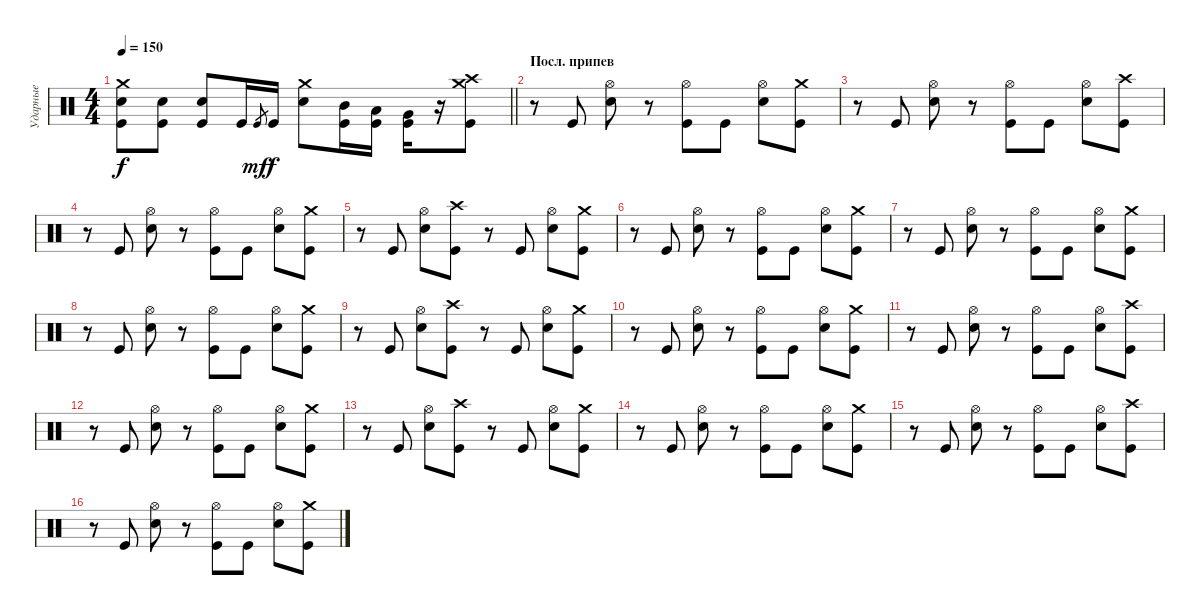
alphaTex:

\track ("Ударные" "Ударные") {instrument percussion}
\staff {score}
\articulation defaults
\ts (4 4)
\tempo 150
\clef neutral
\barLineRight lightlight
\ks c
("Crash medium (hit)" "Electric Snare (hit)" "Kick (hit)").8{dy f} ("Electric Snare (hit)" "Kick (hit)").8 ("Electric Snare (hit)" "Kick (hit)").8 "Kick (hit)".16 "Kick (hit)".8{gr dy mf} "Kick (hit)".16{dy f} ("Crash medium (hit)" "Electric Snare (hit)").8 ("Mid Tom (hit)" "Kick (hit)").16 ("Low Tom (hit)" "Kick (hit)").16 ("Very Low Tom (hit)" "Kick (hit)").16 r.16 ("Crash high (hit)" "Crash medium (hit)" "Kick (hit)").8 |
\section ("" "Посл. припев")
r.8 "Kick (hit)".8 ("Hi-Hat (open)" "Electric Snare (hit)").8 r.8 ("Hi-Hat (open)" "Kick (hit)").8 "Kick (hit)".8 ("Hi-Hat (open)" "Electric Snare (hit)").8 ("Crash medium (hit)" "Kick (hit)").8 |
r.8 "Kick (hit)".8 ("Hi-Hat (open)" "Electric Snare (hit)").8 r.8 ("Hi-Hat (open)" "Kick (hit)").8 "Kick (hit)".8 ("Hi-Hat (open)" "Electric Snare (hit)").8 ("Crash high (hit)" "Kick (hit)").8 |
r.8 "Kick (hit)".8 ("Hi-Hat (open)" "Electric Snare (hit)").8 r.8 ("Hi-Hat (open)" "Kick (hit)").8 "Kick (hit)".8 ("Hi-Hat (open)" "Electric Snare (hit)").8 ("Crash medium (hit)" "Kick (hit)").8 |
r.8 "Kick (hit)".8 ("Hi-Hat (open)" "Electric Snare (hit)").8 ("Crash high (hit)" "Kick (hit)").8 r.8 "Kick (hit)".8 ("Hi-Hat (open)" "Electric Snare (hit)").8 ("Crash medium (hit)" "Kick (hit)").8 |
r.8 "Kick (hit)".8 ("Hi-Hat (open)" "Electric Snare (hit)").8 r.8 ("Hi-Hat (open)" "Kick (hit)").8 "Kick (hit)".8 ("Hi-Hat (open)" "Electric Snare (hit)").8 ("Crash medium (hit)" "Kick (hit)").8 |
r.8 "Kick (hit)".8 ("Hi-Hat (open)" "Electric Snare (hit)").8 r.8 ("Hi-Hat (open)" "Kick (hit)").8 "Kick (hit)".8 ("Hi-Hat (open)" "Electric Snare (hit)").8 ("Crash medium (hit)" "Kick (hit)").8 |
r.8 "Kick (hit)".8 ("Hi-Hat (open)" "Electric Snare (hit)").8 r.8 ("Hi-Hat (open)" "Kick (hit)").8 "Kick (hit)".8 ("Hi-Hat (open)" "Electric Snare (hit)").8 ("Crash medium (hit)" "Kick (hit)").8 |
r.8 "Kick (hit)".8 ("Hi-Hat (open)" "Electric Snare (hit)").8 ("Crash high (hit)" "Kick (hit)").8 r.8 "Kick (hit)".8 ("Hi-Hat (open)" "Electric Snare (hit)").8 ("Crash medium (hit)" "Kick (hit)").8 |
r.8 "Kick (hit)".8 ("Hi-Hat (open)" "Electric Snare (hit)").8 r.8 ("Hi-Hat (open)" "Kick (hit)").8 "Kick (hit)".8 ("Hi-Hat (open)" "Electric Snare (hit)").8 ("Crash medium (hit)" "Kick (hit)").8 |
r.8 "Kick (hit)".8 ("Hi-Hat (open)" "Electric Snare (hit)").8 r.8 ("Hi-Hat (open)" "Kick (hit)").8 "Kick (hit)".8 ("Hi-Hat (open)" "Electric Snare (hit)").8 ("Crash high (hit)" "Kick (hit)").8 |
r.8 "Kick (hit)".8 ("Hi-Hat (open)" "Electric Snare (hit)").8 r.8 ("Hi-Hat (open)" "Kick (hit)").8 "Kick (hit)".8 ("Hi-Hat (open)" "Electric Snare (hit)").8 ("Crash medium (hit)" "Kick (hit)").8 |
r.8 "Kick (hit)".8 ("Hi-Hat (open)" "Electric Snare (hit)").8 ("Crash high (hit)" "Kick (hit)").8 r.8 "Kick (hit)".8 ("Hi-Hat (open)" "Electric Snare (hit)").8 ("Crash medium (hit)" "Kick (hit)").8 |
r.8 "Kick (hit)".8 ("Hi-Hat (open)" "Electric Snare (hit)").8 r.8 ("Hi-Hat (open)" "Kick (hit)").8 "Kick (hit)".8 ("Hi-Hat (open)" "Electric Snare (hit)").8 ("Crash medium (hit)" "Kick (hit)").8 |
r.8 "Kick (hit)".8 ("Hi-Hat (open)" "Electric Snare (hit)").8 r.8 ("Hi-Hat (open)" "Kick (hit)").8 "Kick (hit)".8 ("Hi-Hat (open)" "Electric Snare (hit)").8 ("Crash high (hit)" "Kick (hit)").8 |
r.8 "Kick (hit)".8 ("Hi-Hat (open)" "Electric Snare (hit)").8 r.8 ("Hi-Hat (open)" "Kick (hit)").8 "Kick (hit)".8 ("Hi-Hat (open)" "Electric Snare (hit)").8 ("Crash medium (hit)" "Kick (hit)").8
